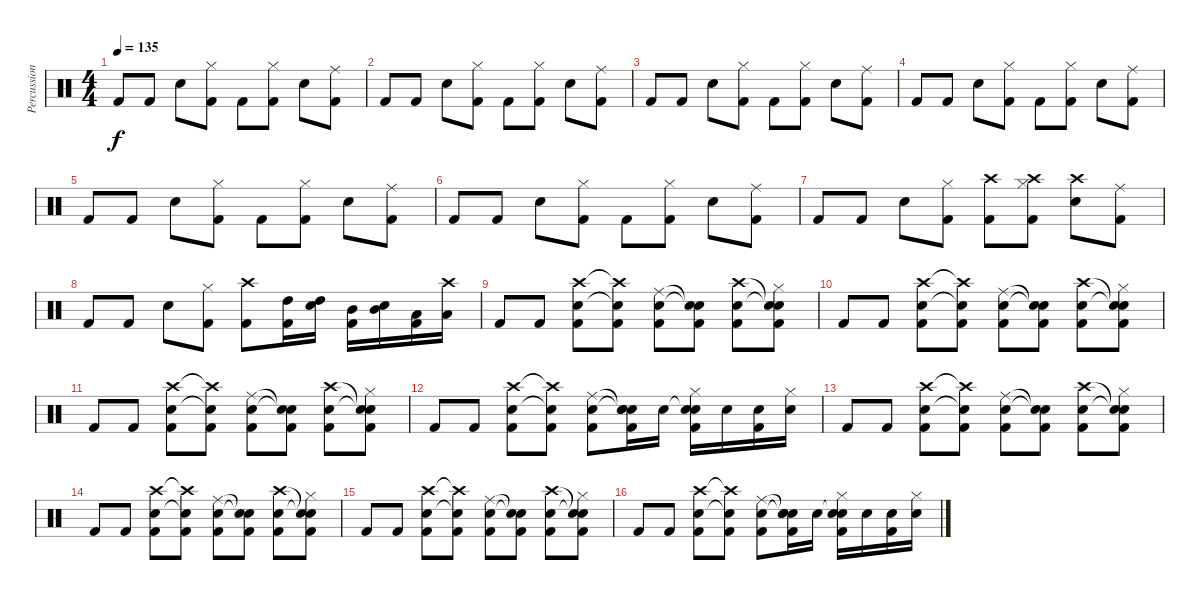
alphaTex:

\track ("Percussion" "Percussion") {instrument percussion}
\staff {score}
\articulation defaults
\ts (4 4)
\tempo 135
\clef neutral
\ks c "Kick (hit) 2".8{dy f} "Kick (hit) 2".8 "Electric Snare (hit)".8
("Hi-Hat (closed)" "Kick (hit) 2").8 "Kick (hit) 2".8 ("Hi-Hat (closed)" "Kick (hit) 2").8 "Electric Snare (hit)".8 ("Ride (middle)" "Kick (hit) 2").8 |
"Kick (hit) 2".8 "Kick (hit) 2".8 "Electric Snare (hit)".8 ("Hi-Hat (closed)" "Kick (hit) 2").8 "Kick (hit) 2".8 ("Hi-Hat (closed)" "Kick (hit) 2").8 "Electric Snare (hit)".8 ("Ride (middle)" "Kick (hit) 2").8 |
"Kick (hit) 2".8 "Kick (hit) 2".8 "Electric Snare (hit)".8 ("Hi-Hat (closed)" "Kick (hit) 2").8 "Kick (hit) 2".8 ("Hi-Hat (closed)" "Kick (hit) 2").8 "Electric Snare (hit)".8 ("Ride (middle)" "Kick (hit) 2").8 |
"Kick (hit) 2".8 "Kick (hit) 2".8 "Electric Snare (hit)".8 ("Hi-Hat (closed)" "Kick (hit) 2").8 "Kick (hit) 2".8 ("Hi-Hat (closed)" "Kick (hit) 2").8 "Electric Snare (hit)".8 ("Ride (middle)" "Kick (hit) 2").8 |
"Kick (hit) 2".8 "Kick (hit) 2".8 "Electric Snare (hit)".8 ("Hi-Hat (closed)" "Kick (hit) 2").8 "Kick (hit) 2".8 ("Hi-Hat (closed)" "Kick (hit) 2").8 "Electric Snare (hit)".8 ("Ride (middle)" "Kick (hit) 2").8 |
"Kick (hit) 2".8 "Kick (hit) 2".8 "Electric Snare (hit)".8 ("Hi-Hat (closed)" "Kick (hit) 2").8 "Kick (hit) 2".8 ("Hi-Hat (closed)" "Kick (hit) 2").8 "Electric Snare (hit)".8 ("Ride (middle)" "Kick (hit) 2").8 |
"Kick (hit) 2".8 "Kick (hit) 2".8 "Electric Snare (hit)".8 ("Hi-Hat (closed)" "Kick (hit) 2").8 ("Crash high (hit)" "Kick (hit) 2").8 ("Crash high (hit)" "Hi-Hat (closed)" "Kick (hit) 2").8 ("Crash high (hit)" "Electric Snare (hit)").8 ("Ride (middle)" "Kick (hit) 2").8 |
"Kick (hit) 2".8 "Kick (hit) 2".8 "Electric Snare (hit)".8 ("Hi-Hat (closed)" "Kick (hit) 2").8 ("Crash high (hit)" "Kick (hit) 2").8 ("High Tom (hit)" "Kick (hit) 2").16 ("High Tom (hit)" "Electric Snare (hit)").16 ("Mid Tom (hit)" "Kick (hit) 2").16 ("Mid Tom (hit)" "Electric Snare (hit)").16 ("Low Tom (hit)" "Kick (hit) 2").16 ("Crash high (hit)" "Low Tom (hit)").16 |
"Kick (hit) 2".8 "Kick (hit) 2".8 ("Crash high (hit)" "Electric Snare (hit)" "Kick (hit) 2").8 ("Crash high (hit)"{t} "Electric Snare (hit)"{t} "Kick (hit) 2").8 ("Ride (middle)" "Electric Snare (hit)" "Kick (hit) 2").8 ("Snare (hit)"{t} "Snare (hit)"{t} "Kick (hit) 2").8 ("Crash high (hit)" "Electric Snare (hit)" "Kick (hit) 2").8 ("Snare (hit)"{t} "Snare (hit)"{t} "Hi-Hat (closed)" "Kick (hit) 2").8 |
"Kick (hit) 2".8 "Kick (hit) 2".8 ("Crash high (hit)" "Electric Snare (hit)" "Kick (hit) 2").8 ("Crash high (hit)"{t} "Electric Snare (hit)"{t} "Kick (hit) 2").8 ("Ride (middle)" "Electric Snare (hit)" "Kick (hit) 2").8 ("Snare (hit)"{t} "Snare (hit)"{t} "Kick (hit) 2").8 ("Crash high (hit)" "Electric Snare (hit)" "Kick (hit) 2").8 ("Snare (hit)"{t} "Snare (hit)"{t} "Hi-Hat (closed)" "Kick (hit) 2").8 |
"Kick (hit) 2".8 "Kick (hit) 2".8 ("Crash high (hit)" "Electric Snare (hit)" "Kick (hit) 2").8 ("Crash high (hit)"{t} "Electric Snare (hit)"{t} "Kick (hit) 2").8 ("Ride (middle)" "Electric Snare (hit)" "Kick (hit) 2").8 ("Snare (hit)"{t} "Snare (hit)"{t} "Kick (hit) 2").8 ("Crash high (hit)" "Electric Snare (hit)" "Kick (hit) 2").8 ("Snare (hit)"{t} "Snare (hit)"{t} "Hi-Hat (closed)" "Kick (hit) 2").8 |
"Kick (hit) 2".8 "Kick (hit) 2".8 ("Crash high (hit)" "Electric Snare (hit)" "Kick (hit) 2").8 ("Crash high (hit)"{t} "Electric Snare (hit)"{t} "Kick (hit) 2").8 ("Ride (middle)" "Electric Snare (hit)" "Kick (hit) 2").8 ("Snare (hit)"{t} "Snare (hit)"{t} "Electric Snare (hit)" "Kick (hit) 2").16 "Electric Snare (hit)".16 ("Snare (hit)"{t} "Hi-Hat (closed)" "Electric Snare (hit)" "Kick (hit) 2").16 "Electric Snare (hit)".16 ("Electric Snare (hit)" "Kick (hit) 2").16 ("Hi-Hat (closed)" "Electric Snare (hit)").16 |
"Kick (hit) 2".8 "Kick (hit) 2".8 ("Crash high (hit)" "Electric Snare (hit)" "Kick (hit) 2").8 ("Crash high (hit)"{t} "Electric Snare (hit)"{t} "Kick (hit) 2").8 ("Ride (middle)" "Electric Snare (hit)" "Kick (hit) 2").8 ("Snare (hit)"{t} "Snare (hit)"{t} "Kick (hit) 2").8 ("Crash high (hit)" "Electric Snare (hit)" "Kick (hit) 2").8 ("Snare (hit)"{t} "Snare (hit)"{t} "Hi-Hat (closed)" "Kick (hit) 2").8 |
"Kick (hit) 2".8 "Kick (hit) 2".8 ("Crash high (hit)" "Electric Snare (hit)" "Kick (hit) 2").8 ("Crash high (hit)"{t} "Electric Snare (hit)"{t} "Kick (hit) 2").8 ("Ride (middle)" "Electric Snare (hit)" "Kick (hit) 2").8 ("Snare (hit)"{t} "Snare (hit)"{t} "Kick (hit) 2").8 ("Crash high (hit)" "Electric Snare (hit)" "Kick (hit) 2").8 ("Snare (hit)"{t} "Snare (hit)"{t} "Hi-Hat (closed)" "Kick (hit) 2").8 |
"Kick (hit) 2".8 "Kick (hit) 2".8 ("Crash high (hit)" "Electric Snare (hit)" "Kick (hit) 2").8 ("Crash high (hit)"{t} "Electric Snare (hit)"{t} "Kick (hit) 2").8 ("Ride (middle)" "Electric Snare (hit)" "Kick (hit) 2").8 ("Snare (hit)"{t} "Snare (hit)"{t} "Kick (hit) 2").8 ("Crash high (hit)" "Electric Snare (hit)" "Kick (hit) 2").8 ("Snare (hit)"{t} "Snare (hit)"{t} "Hi-Hat (closed)" "Kick (hit) 2").8 |
"Kick (hit) 2".8 "Kick (hit) 2".8 ("Crash high (hit)" "Electric Snare (hit)" "Kick (hit) 2").8 ("Crash high (hit)"{t} "Electric Snare (hit)"{t} "Kick (hit) 2").8 ("Ride (middle)" "Electric Snare (hit)" "Kick (hit) 2").8 ("Snare (hit)"{t} "Snare (hit)"{t} "Electric Snare (hit)" "Kick (hit) 2").16 "Electric Snare (hit)".16 ("Snare (hit)"{t} "Hi-Hat (closed)" "Electric Snare (hit)" "Kick (hit) 2").16 "Electric Snare (hit)".16 ("Electric Snare (hit)" "Kick (hit) 2").16 ("Hi-Hat (closed)" "Electric Snare (hit)").16
